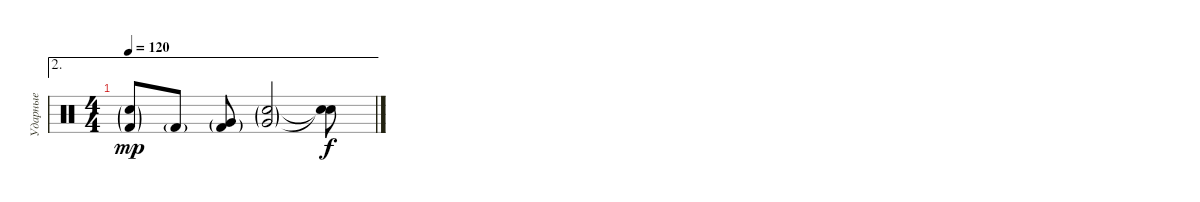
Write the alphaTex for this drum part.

\track ("Ударные" "Ударные") {instrument percussion}
\staff {score}
\articulation defaults
\ae 2
\ts (4 4)
\tempo 120
\clef neutral
\ks c
("Snare (hit) 2"{g} "Kick (hit) 2"{g}).8{dy mp} "Kick (hit) 2"{g}.8 ("Very Low Tom (hit)"{g} "Kick (hit) 2"{g}).8 ("Very Low Tom (hit)"{g} "Snare (hit) 2"{g}).2 ("Snare (hit)"{t} "Snare (hit)"{t}).8{dy f}
